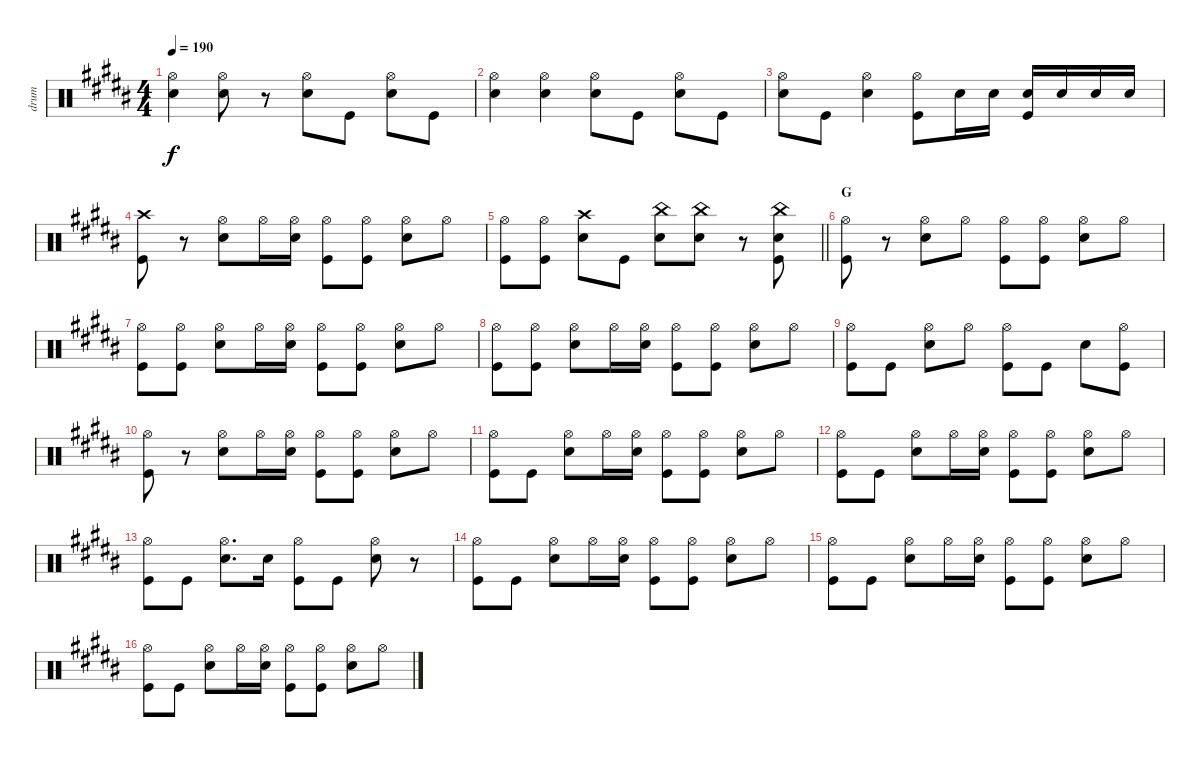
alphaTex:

\track ("drum" "drum") {instrument percussion}
\staff {score}
\articulation defaults
\ts (4 4)
\tempo 190
\clef neutral
\ks b
("Hi-Hat (open)" "Snare (hit) 2").4{dy f} ("Hi-Hat (open)" "Snare (hit) 2").8 r.8 ("Hi-Hat (open)" "Snare (hit) 2").8 "Kick (hit)".8 ("Hi-Hat (open)" "Snare (hit) 2").8 "Kick (hit)".8 |
("Hi-Hat (open)" "Snare (hit) 2").4 ("Hi-Hat (open)" "Snare (hit) 2").4 ("Hi-Hat (open)" "Snare (hit) 2").8 "Kick (hit)".8 ("Hi-Hat (open)" "Snare (hit) 2").8 "Kick (hit)".8 |
("Hi-Hat (open)" "Snare (hit) 2").8 "Kick (hit)".8 ("Hi-Hat (open)" "Snare (hit) 2").4 ("Hi-Hat (open)" "Kick (hit)").8 "Snare (hit) 2".16 "Snare (hit) 2".16 ("Snare (hit) 2" "Kick (hit)").16 "Snare (hit) 2".16 "Snare (hit) 2".16 "Snare (hit) 2".16 |
("Crash high (hit)" "Kick (hit)").8 r.8 ("Hi-Hat (open)" "Snare (hit) 2").8 "Hi-Hat (open)".16 ("Hi-Hat (open)" "Snare (hit) 2").16 ("Hi-Hat (open)" "Kick (hit)").8 ("Hi-Hat (open)" "Kick (hit)").8 ("Hi-Hat (open)" "Snare (hit) 2").8 "Hi-Hat (open)".8 |
\barLineRight lightlight
("Hi-Hat (open)" "Kick (hit)").8 ("Hi-Hat (open)" "Kick (hit)").8 ("Crash high (hit)" "Snare (hit) 2").8 "Kick (hit)".8 ("China (hit)" "Snare (hit) 2").8 ("China (hit)" "Snare (hit) 2").8 r.8 ("China (hit)" "Snare (hit) 2" "Kick (hit)").8 |
\section ("" "G")
("Hi-Hat (open)" "Kick (hit)").8 r.8 ("Hi-Hat (open)" "Snare (hit) 2").8 "Hi-Hat (open)".8 ("Hi-Hat (open)" "Kick (hit)").8 ("Hi-Hat (open)" "Kick (hit)").8 ("Hi-Hat (open)" "Snare (hit) 2").8 "Hi-Hat (open)".8 |
("Hi-Hat (open)" "Kick (hit)").8 ("Hi-Hat (open)" "Kick (hit)").8 ("Hi-Hat (open)" "Snare (hit) 2").8 "Hi-Hat (open)".16 ("Hi-Hat (open)" "Snare (hit) 2").16 ("Hi-Hat (open)" "Kick (hit)").8 ("Hi-Hat (open)" "Kick (hit)").8 ("Hi-Hat (open)" "Snare (hit) 2").8 "Hi-Hat (open)".8 |
("Hi-Hat (open)" "Kick (hit)").8 ("Hi-Hat (open)" "Kick (hit)").8 ("Hi-Hat (open)" "Snare (hit) 2").8 "Hi-Hat (open)".16 ("Hi-Hat (open)" "Snare (hit) 2").16 ("Hi-Hat (open)" "Kick (hit)").8 ("Hi-Hat (open)" "Kick (hit)").8 ("Hi-Hat (open)" "Snare (hit) 2").8 "Hi-Hat (open)".8 |
("Hi-Hat (open)" "Kick (hit)").8 "Kick (hit)".8 ("Hi-Hat (open)" "Snare (hit) 2").8 "Hi-Hat (open)".8 ("Hi-Hat (open)" "Kick (hit)").8 "Kick (hit)".8 "Snare (hit) 2".8 ("Hi-Hat (open)" "Kick (hit)").8 |
("Hi-Hat (open)" "Kick (hit)").8 r.8 ("Hi-Hat (open)" "Snare (hit) 2").8 "Hi-Hat (open)".16 ("Hi-Hat (open)" "Snare (hit) 2").16 ("Hi-Hat (open)" "Kick (hit)").8 ("Hi-Hat (open)" "Kick (hit)").8 ("Hi-Hat (open)" "Snare (hit) 2").8 "Hi-Hat (open)".8 |
("Hi-Hat (open)" "Kick (hit)").8 "Kick (hit)".8 ("Hi-Hat (open)" "Snare (hit) 2").8 "Hi-Hat (open)".16 ("Hi-Hat (open)" "Snare (hit) 2").16 ("Hi-Hat (open)" "Kick (hit)").8 ("Hi-Hat (open)" "Kick (hit)").8 ("Hi-Hat (open)" "Snare (hit) 2").8 "Hi-Hat (open)".8 |
("Hi-Hat (open)" "Kick (hit)").8 "Kick (hit)".8 ("Hi-Hat (open)" "Snare (hit) 2").8 "Hi-Hat (open)".16 ("Hi-Hat (open)" "Snare (hit) 2").16 ("Hi-Hat (open)" "Kick (hit)").8 ("Hi-Hat (open)" "Kick (hit)").8 ("Hi-Hat (open)" "Snare (hit) 2").8 "Hi-Hat (open)".8 |
("Hi-Hat (open)" "Kick (hit)").8 "Kick (hit)".8 ("Hi-Hat (open)" "Snare (hit) 2").8{d} "Snare (hit) 2".16 ("Hi-Hat (open)" "Kick (hit)").8 "Kick (hit)".8 ("Hi-Hat (open)" "Snare (hit) 2").8 r.8 |
("Hi-Hat (open)" "Kick (hit)").8 "Kick (hit)".8 ("Hi-Hat (open)" "Snare (hit) 2").8 "Hi-Hat (open)".16 ("Hi-Hat (open)" "Snare (hit) 2").16 ("Hi-Hat (open)" "Kick (hit)").8 ("Hi-Hat (open)" "Kick (hit)").8 ("Hi-Hat (open)" "Snare (hit) 2").8 "Hi-Hat (open)".8 |
("Hi-Hat (open)" "Kick (hit)").8 "Kick (hit)".8 ("Hi-Hat (open)" "Snare (hit) 2").8 "Hi-Hat (open)".16 ("Hi-Hat (open)" "Snare (hit) 2").16 ("Hi-Hat (open)" "Kick (hit)").8 ("Hi-Hat (open)" "Kick (hit)").8 ("Hi-Hat (open)" "Snare (hit) 2").8 "Hi-Hat (open)".8 |
("Hi-Hat (open)" "Kick (hit)").8 "Kick (hit)".8 ("Hi-Hat (open)" "Snare (hit) 2").8 "Hi-Hat (open)".16 ("Hi-Hat (open)" "Snare (hit) 2").16 ("Hi-Hat (open)" "Kick (hit)").8 ("Hi-Hat (open)" "Kick (hit)").8 ("Hi-Hat (open)" "Snare (hit) 2").8 "Hi-Hat (open)".8
